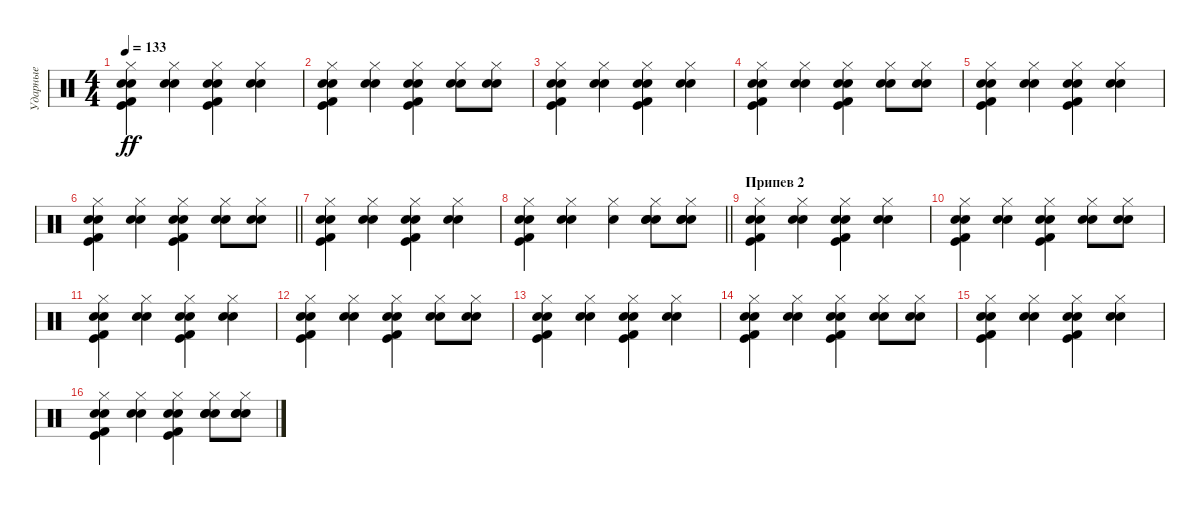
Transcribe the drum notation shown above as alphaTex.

\track ("Ударные" "Ударные") {instrument percussion}
\staff {score}
\articulation defaults
\ts (4 4)
\tempo 133
\clef neutral
\ks c
("Snare (hit) 2" "Kick (hit)" "Kick (hit) 2" "Snare (hit) 2" "Hi-Hat (closed)").4{dy ff} ("Electric Snare (hit)" "Electric Snare (hit)" "Hi-Hat (closed)").4 ("Snare (hit) 2" "Kick (hit)" "Kick (hit) 2" "Snare (hit) 2" "Hi-Hat (closed)").4 ("Electric Snare (hit)" "Electric Snare (hit)" "Hi-Hat (closed)").4 |
("Snare (hit) 2" "Kick (hit)" "Kick (hit) 2" "Snare (hit) 2" "Hi-Hat (closed)").4 ("Electric Snare (hit)" "Electric Snare (hit)" "Hi-Hat (closed)").4 ("Snare (hit) 2" "Kick (hit)" "Kick (hit) 2" "Snare (hit) 2" "Hi-Hat (closed)").4 ("Electric Snare (hit)" "Electric Snare (hit)" "Hi-Hat (closed)").8 ("Electric Snare (hit)" "Electric Snare (hit)" "Hi-Hat (closed)").8 |
("Snare (hit) 2" "Kick (hit)" "Kick (hit) 2" "Snare (hit) 2" "Hi-Hat (closed)").4 ("Electric Snare (hit)" "Electric Snare (hit)" "Hi-Hat (closed)").4 ("Snare (hit) 2" "Kick (hit)" "Kick (hit) 2" "Snare (hit) 2" "Hi-Hat (closed)").4 ("Electric Snare (hit)" "Electric Snare (hit)" "Hi-Hat (closed)").4 |
("Snare (hit) 2" "Kick (hit)" "Kick (hit) 2" "Snare (hit) 2" "Hi-Hat (closed)").4 ("Electric Snare (hit)" "Electric Snare (hit)" "Hi-Hat (closed)").4 ("Snare (hit) 2" "Kick (hit)" "Kick (hit) 2" "Snare (hit) 2" "Hi-Hat (closed)").4 ("Electric Snare (hit)" "Electric Snare (hit)" "Hi-Hat (closed)").8 ("Electric Snare (hit)" "Electric Snare (hit)" "Hi-Hat (closed)").8 |
("Snare (hit) 2" "Kick (hit)" "Kick (hit) 2" "Snare (hit) 2" "Hi-Hat (closed)").4 ("Electric Snare (hit)" "Electric Snare (hit)" "Hi-Hat (closed)").4 ("Snare (hit) 2" "Kick (hit)" "Kick (hit) 2" "Snare (hit) 2" "Hi-Hat (closed)").4 ("Electric Snare (hit)" "Electric Snare (hit)" "Hi-Hat (closed)").4 |
\barLineRight lightlight
("Snare (hit) 2" "Kick (hit)" "Kick (hit) 2" "Snare (hit) 2" "Hi-Hat (closed)").4 ("Electric Snare (hit)" "Electric Snare (hit)" "Hi-Hat (closed)").4 ("Snare (hit) 2" "Kick (hit)" "Kick (hit) 2" "Snare (hit) 2" "Hi-Hat (closed)").4 ("Electric Snare (hit)" "Electric Snare (hit)" "Hi-Hat (closed)").8 ("Electric Snare (hit)" "Electric Snare (hit)" "Hi-Hat (closed)").8 |
("Snare (hit) 2" "Kick (hit)" "Kick (hit) 2" "Snare (hit) 2" "Hi-Hat (closed)").4 ("Electric Snare (hit)" "Electric Snare (hit)" "Hi-Hat (closed)").4 ("Snare (hit) 2" "Kick (hit)" "Kick (hit) 2" "Snare (hit) 2" "Hi-Hat (closed)").4 ("Electric Snare (hit)" "Electric Snare (hit)" "Hi-Hat (closed)").4 |
\barLineRight lightlight
("Snare (hit) 2" "Kick (hit)" "Kick (hit) 2" "Snare (hit) 2" "Hi-Hat (closed)").4 ("Electric Snare (hit)" "Electric Snare (hit)" "Hi-Hat (closed)").4 ("Electric Snare (hit)" "Hi-Hat (closed)").4 ("Snare (hit) 2" "Electric Snare (hit)" "Snare (hit) 2" "Hi-Hat (closed)").8 ("Snare (hit) 2" "Electric Snare (hit)" "Snare (hit) 2" "Hi-Hat (closed)").8 |
\section ("" "Припев 2")
("Snare (hit) 2" "Kick (hit)" "Kick (hit) 2" "Snare (hit) 2" "Hi-Hat (closed)").4 ("Electric Snare (hit)" "Electric Snare (hit)" "Hi-Hat (closed)").4 ("Snare (hit) 2" "Kick (hit)" "Kick (hit) 2" "Snare (hit) 2" "Hi-Hat (closed)").4 ("Electric Snare (hit)" "Electric Snare (hit)" "Hi-Hat (closed)").4 |
("Snare (hit) 2" "Kick (hit)" "Kick (hit) 2" "Snare (hit) 2" "Hi-Hat (closed)").4 ("Electric Snare (hit)" "Electric Snare (hit)" "Hi-Hat (closed)").4 ("Snare (hit) 2" "Kick (hit)" "Kick (hit) 2" "Snare (hit) 2" "Hi-Hat (closed)").4 ("Electric Snare (hit)" "Electric Snare (hit)" "Hi-Hat (closed)").8 ("Electric Snare (hit)" "Electric Snare (hit)" "Hi-Hat (closed)").8 |
("Snare (hit) 2" "Kick (hit)" "Kick (hit) 2" "Snare (hit) 2" "Hi-Hat (closed)").4 ("Electric Snare (hit)" "Electric Snare (hit)" "Hi-Hat (closed)").4 ("Snare (hit) 2" "Kick (hit)" "Kick (hit) 2" "Snare (hit) 2" "Hi-Hat (closed)").4 ("Electric Snare (hit)" "Electric Snare (hit)" "Hi-Hat (closed)").4 |
("Snare (hit) 2" "Kick (hit)" "Kick (hit) 2" "Snare (hit) 2" "Hi-Hat (closed)").4 ("Electric Snare (hit)" "Electric Snare (hit)" "Hi-Hat (closed)").4 ("Snare (hit) 2" "Kick (hit)" "Kick (hit) 2" "Snare (hit) 2" "Hi-Hat (closed)").4 ("Electric Snare (hit)" "Electric Snare (hit)" "Hi-Hat (closed)").8 ("Electric Snare (hit)" "Electric Snare (hit)" "Hi-Hat (closed)").8 |
("Snare (hit) 2" "Kick (hit)" "Kick (hit) 2" "Snare (hit) 2" "Hi-Hat (closed)").4 ("Electric Snare (hit)" "Electric Snare (hit)" "Hi-Hat (closed)").4 ("Snare (hit) 2" "Kick (hit)" "Kick (hit) 2" "Snare (hit) 2" "Hi-Hat (closed)").4 ("Electric Snare (hit)" "Electric Snare (hit)" "Hi-Hat (closed)").4 |
("Snare (hit) 2" "Kick (hit)" "Kick (hit) 2" "Snare (hit) 2" "Hi-Hat (closed)").4 ("Electric Snare (hit)" "Electric Snare (hit)" "Hi-Hat (closed)").4 ("Snare (hit) 2" "Kick (hit)" "Kick (hit) 2" "Snare (hit) 2" "Hi-Hat (closed)").4 ("Electric Snare (hit)" "Electric Snare (hit)" "Hi-Hat (closed)").8 ("Electric Snare (hit)" "Electric Snare (hit)" "Hi-Hat (closed)").8 |
("Snare (hit) 2" "Kick (hit)" "Kick (hit) 2" "Snare (hit) 2" "Hi-Hat (closed)").4 ("Electric Snare (hit)" "Electric Snare (hit)" "Hi-Hat (closed)").4 ("Snare (hit) 2" "Kick (hit)" "Kick (hit) 2" "Snare (hit) 2" "Hi-Hat (closed)").4 ("Electric Snare (hit)" "Electric Snare (hit)" "Hi-Hat (closed)").4 |
("Snare (hit) 2" "Kick (hit)" "Kick (hit) 2" "Snare (hit) 2" "Hi-Hat (closed)").4 ("Electric Snare (hit)" "Electric Snare (hit)" "Hi-Hat (closed)").4 ("Snare (hit) 2" "Kick (hit)" "Kick (hit) 2" "Snare (hit) 2" "Hi-Hat (closed)").4 ("Snare (hit) 2" "Snare (hit) 2" "Electric Snare (hit)" "Hi-Hat (closed)").8 ("Snare (hit) 2" "Snare (hit) 2" "Electric Snare (hit)" "Hi-Hat (closed)").8
